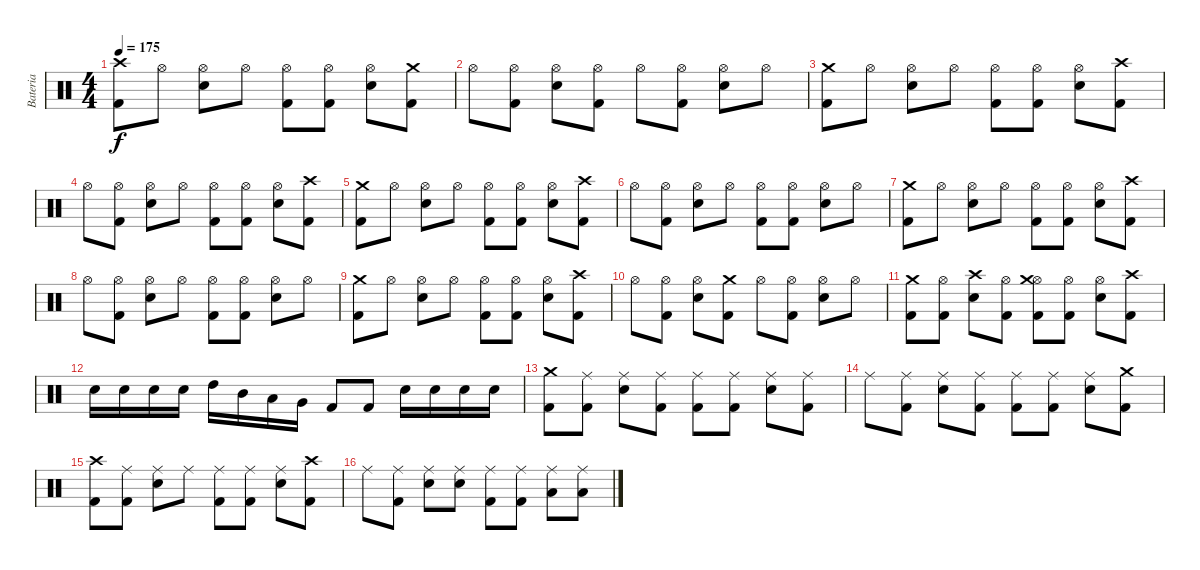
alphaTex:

\track ("Bateria" "Bateria") {instrument percussion}
\staff {score}
\articulation defaults
\ts (4 4)
\tempo 175
\clef neutral
\ks c
("Kick (hit) 2" "Crash high (hit)").8{dy f} "Hi-Hat (open)".8 ("Snare (hit) 2" "Hi-Hat (open)").8 "Hi-Hat (open)".8 ("Kick (hit) 2" "Hi-Hat (open)").8 ("Kick (hit) 2" "Hi-Hat (open)").8 ("Snare (hit) 2" "Hi-Hat (open)").8 ("Kick (hit) 2" "Crash medium (hit)").8 |
"Hi-Hat (open)".8 ("Kick (hit) 2" "Hi-Hat (open)").8 ("Snare (hit) 2" "Hi-Hat (open)").8 ("Kick (hit) 2" "Hi-Hat (open)").8 "Hi-Hat (open)".8 ("Kick (hit) 2" "Hi-Hat (open)").8 ("Snare (hit) 2" "Hi-Hat (open)").8 "Hi-Hat (open)".8 |
("Kick (hit) 2" "Crash medium (hit)").8 "Hi-Hat (open)".8 ("Snare (hit) 2" "Hi-Hat (open)").8 "Hi-Hat (open)".8 ("Kick (hit) 2" "Hi-Hat (open)").8 ("Kick (hit) 2" "Hi-Hat (open)").8 ("Snare (hit) 2" "Hi-Hat (open)").8 ("Kick (hit) 2" "Crash high (hit)").8 |
"Hi-Hat (open)".8 ("Kick (hit) 2" "Hi-Hat (open)").8 ("Snare (hit) 2" "Hi-Hat (open)").8 "Hi-Hat (open)".8 ("Kick (hit) 2" "Hi-Hat (open)").8 ("Kick (hit) 2" "Hi-Hat (open)").8 ("Snare (hit) 2" "Hi-Hat (open)").8 ("Kick (hit) 2" "Crash high (hit)").8 |
("Kick (hit) 2" "Crash medium (hit)").8 "Hi-Hat (open)".8 ("Snare (hit) 2" "Hi-Hat (open)").8 "Hi-Hat (open)".8 ("Kick (hit) 2" "Hi-Hat (open)").8 ("Kick (hit) 2" "Hi-Hat (open)").8 ("Snare (hit) 2" "Hi-Hat (open)").8 ("Kick (hit) 2" "Crash high (hit)").8 |
"Hi-Hat (open)".8 ("Kick (hit) 2" "Hi-Hat (open)").8 ("Snare (hit) 2" "Hi-Hat (open)").8 "Hi-Hat (open)".8 ("Kick (hit) 2" "Hi-Hat (open)").8 ("Kick (hit) 2" "Hi-Hat (open)").8 ("Snare (hit) 2" "Hi-Hat (open)").8 "Hi-Hat (open)".8 |
("Kick (hit) 2" "Crash medium (hit)").8 "Hi-Hat (open)".8 ("Snare (hit) 2" "Hi-Hat (open)").8 "Hi-Hat (open)".8 ("Kick (hit) 2" "Hi-Hat (open)").8 ("Kick (hit) 2" "Hi-Hat (open)").8 ("Snare (hit) 2" "Hi-Hat (open)").8 ("Kick (hit) 2" "Crash high (hit)").8 |
"Hi-Hat (open)".8 ("Kick (hit) 2" "Hi-Hat (open)").8 ("Snare (hit) 2" "Hi-Hat (open)").8 "Hi-Hat (open)".8 ("Kick (hit) 2" "Hi-Hat (open)").8 ("Kick (hit) 2" "Hi-Hat (open)").8 ("Snare (hit) 2" "Hi-Hat (open)").8 "Hi-Hat (open)".8 |
("Kick (hit) 2" "Crash medium (hit)").8 "Hi-Hat (open)".8 ("Snare (hit) 2" "Hi-Hat (open)").8 "Hi-Hat (open)".8 ("Kick (hit) 2" "Hi-Hat (open)").8 ("Kick (hit) 2" "Hi-Hat (open)").8 ("Snare (hit) 2" "Hi-Hat (open)").8 ("Kick (hit) 2" "Crash high (hit)").8 |
"Hi-Hat (open)".8 ("Kick (hit) 2" "Hi-Hat (open)").8 ("Snare (hit) 2" "Hi-Hat (open)").8 ("Kick (hit) 2" "Crash medium (hit)").8 "Hi-Hat (open)".8 ("Kick (hit) 2" "Hi-Hat (open)").8 ("Snare (hit) 2" "Hi-Hat (open)").8 "Hi-Hat (open)".8 |
("Kick (hit) 2" "Crash medium (hit)").8 ("Kick (hit) 2" "Hi-Hat (open)").8 ("Snare (hit) 2" "Crash high (hit)").8 ("Kick (hit) 2" "Hi-Hat (open)").8 ("Kick (hit) 2" "Hi-Hat (open)" "Crash medium (hit)").8 ("Kick (hit) 2" "Hi-Hat (open)").8 ("Snare (hit) 2" "Hi-Hat (open)").8 ("Kick (hit) 2" "Crash high (hit)").8 |
"Snare (hit) 2".16 "Snare (hit) 2".16 "Snare (hit) 2".16 "Snare (hit) 2".16 "High Tom (hit)".16 "Mid Tom (hit)".16 "Low Tom (hit)".16 "Very Low Tom (hit)".16 "Kick (hit) 2".8 "Kick (hit) 2".8 "Snare (hit) 2".16 "Snare (hit) 2".16 "Snare (hit) 2".16 "Snare (hit) 2".16 |
("Kick (hit) 2" "Crash medium (hit)").8 ("Kick (hit) 2" "Ride (middle)").8 ("Snare (hit) 2" "Ride (middle)").8 ("Kick (hit) 2" "Ride (middle)").8 ("Kick (hit) 2" "Ride (middle)").8 ("Kick (hit) 2" "Ride (middle)").8 ("Snare (hit) 2" "Ride (middle)").8 ("Kick (hit) 2" "Ride (middle)").8 |
"Ride (middle)".8 ("Kick (hit) 2" "Ride (middle)").8 ("Snare (hit) 2" "Ride (middle)").8 ("Kick (hit) 2" "Ride (middle)").8 ("Kick (hit) 2" "Ride (middle)").8 ("Kick (hit) 2" "Ride (middle)").8 ("Snare (hit) 2" "Ride (middle)").8 ("Kick (hit) 2" "Crash medium (hit)").8 |
("Kick (hit) 2" "Crash high (hit)").8 ("Kick (hit) 2" "Ride (middle)").8 ("Snare (hit) 2" "Ride (middle)").8 "Ride (middle)".8 ("Kick (hit) 2" "Ride (middle)").8 ("Kick (hit) 2" "Ride (middle)").8 ("Snare (hit) 2" "Ride (middle)").8 ("Kick (hit) 2" "Crash high (hit)").8 |
"Ride (middle)".8 ("Kick (hit) 2" "Ride (middle)").8 ("Snare (hit) 2" "Ride (middle)").8 ("Snare (hit) 2" "Ride (middle)").8 ("Kick (hit) 2" "Ride (middle)").8 ("Kick (hit) 2" "Ride (middle)").8 ("Low Tom (hit)" "Ride (middle)").8 ("Low Tom (hit)" "Ride (middle)").8
